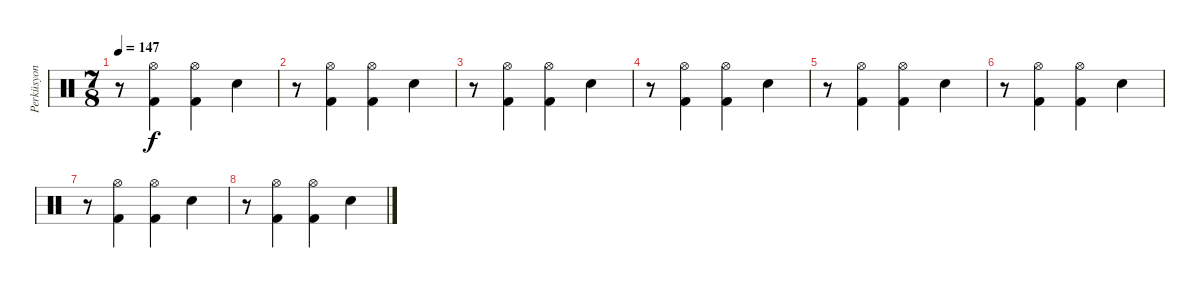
\track ("Perküsyon" "Perküsyon") {instrument percussion}
\staff {score}
\articulation defaults
\ts (7 8)
\tempo 147
\clef neutral
\ks c
r.8{dy f} ("Hi-Hat (open)" "Kick (hit) 2").4 ("Hi-Hat (open)" "Kick (hit) 2").4 "Electric Snare (hit)".4 |
r.8 ("Hi-Hat (open)" "Kick (hit) 2").4 ("Hi-Hat (open)" "Kick (hit) 2").4 "Electric Snare (hit)".4 |
r.8 ("Hi-Hat (open)" "Kick (hit) 2").4 ("Hi-Hat (open)" "Kick (hit) 2").4 "Electric Snare (hit)".4 |
r.8 ("Hi-Hat (open)" "Kick (hit) 2").4 ("Hi-Hat (open)" "Kick (hit) 2").4 "Electric Snare (hit)".4 |
r.8 ("Hi-Hat (open)" "Kick (hit) 2").4 ("Hi-Hat (open)" "Kick (hit) 2").4 "Electric Snare (hit)".4 |
r.8 ("Hi-Hat (open)" "Kick (hit) 2").4 ("Hi-Hat (open)" "Kick (hit) 2").4 "Electric Snare (hit)".4 |
r.8 ("Hi-Hat (open)" "Kick (hit) 2").4 ("Hi-Hat (open)" "Kick (hit) 2").4 "Electric Snare (hit)".4 |
r.8 ("Hi-Hat (open)" "Kick (hit) 2").4 ("Hi-Hat (open)" "Kick (hit) 2").4 "Electric Snare (hit)".4
